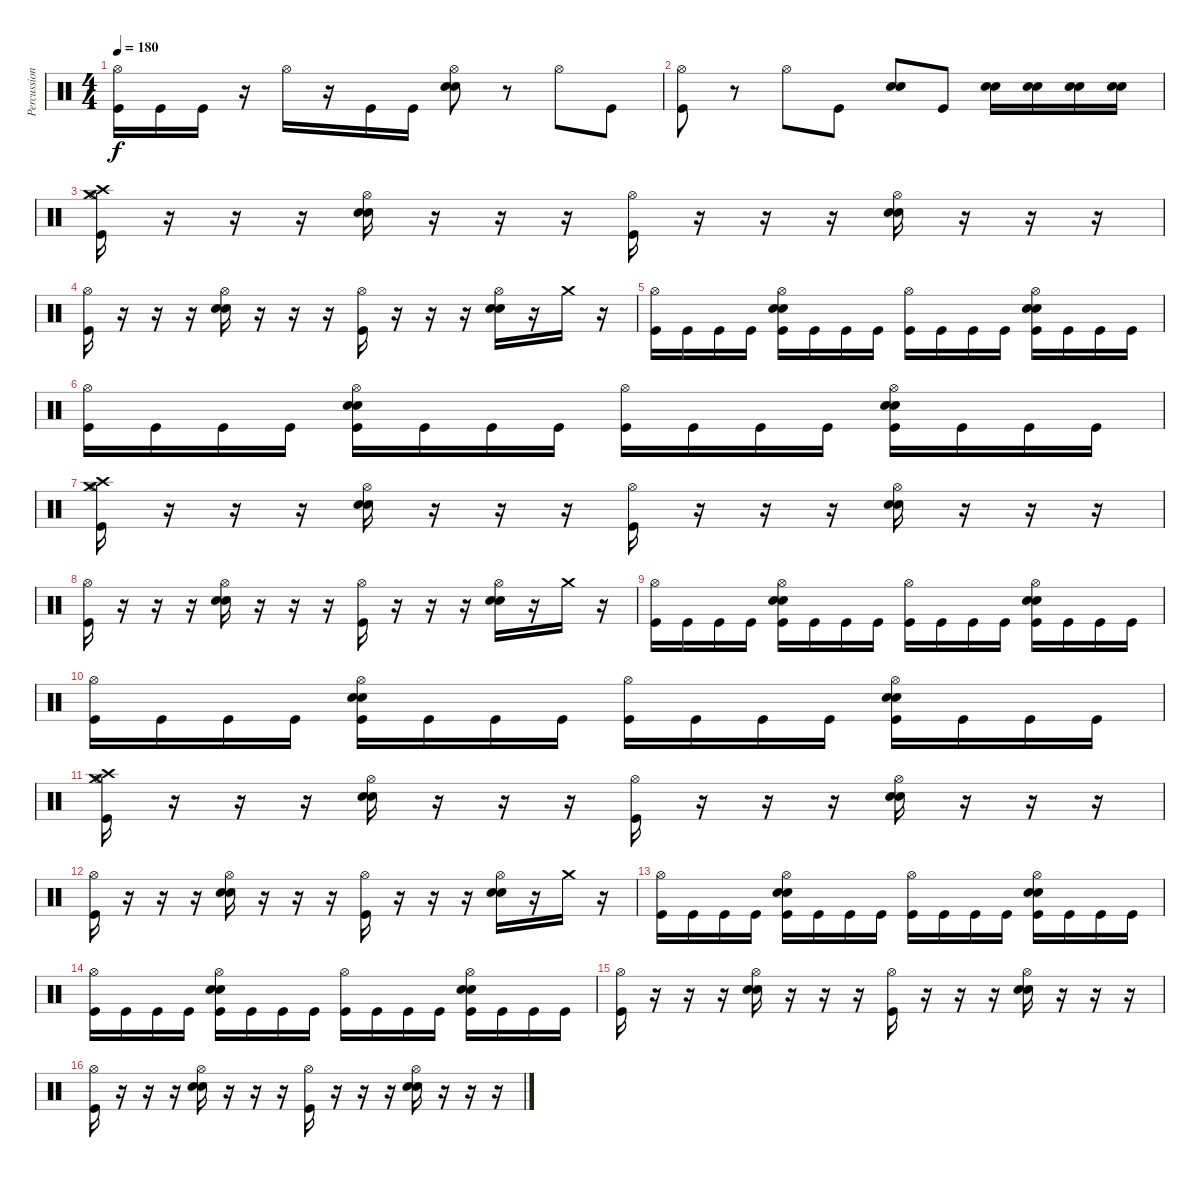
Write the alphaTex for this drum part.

\track ("Percussion" "Percussion") {instrument percussion}
\staff {score}
\articulation defaults
\ts (4 4)
\tempo 180
\clef neutral
\ks c
("Hi-Hat (open)" "Kick (hit)").16{dy f} "Kick (hit)".16 "Kick (hit)".16 r.16 "Hi-Hat (open)".16 r.16 "Kick (hit)".16 "Kick (hit)".16 ("Hi-Hat (open)" "Snare (hit) 2" "Electric Snare (hit)").8 r.8 "Hi-Hat (open)".8 "Kick (hit)".8 |
("Hi-Hat (open)" "Kick (hit)").8 r.8 "Hi-Hat (open)".8 "Kick (hit)".8 ("Snare (hit) 2" "Electric Snare (hit)").8 "Kick (hit)".8 ("Snare (hit) 2" "Electric Snare (hit)").16 ("Snare (hit) 2" "Electric Snare (hit)").16 ("Snare (hit) 2" "Electric Snare (hit)").16 ("Snare (hit) 2" "Electric Snare (hit)").16 |
("Crash high (hit)" "Hi-Hat (open)" "Crash medium (hit)" "Kick (hit)").16 r.16 r.16 r.16 ("Hi-Hat (open)" "Snare (hit) 2" "Electric Snare (hit)").16 r.16 r.16 r.16 ("Hi-Hat (open)" "Kick (hit)").16 r.16 r.16 r.16 ("Hi-Hat (open)" "Snare (hit) 2" "Electric Snare (hit)").16 r.16 r.16 r.16 |
("Hi-Hat (open)" "Kick (hit)").16 r.16 r.16 r.16 ("Hi-Hat (open)" "Snare (hit) 2" "Electric Snare (hit)").16 r.16 r.16 r.16 ("Hi-Hat (open)" "Kick (hit)").16 r.16 r.16 r.16 ("Hi-Hat (open)" "Snare (hit) 2" "Electric Snare (hit)").16 r.16 "Crash medium (hit)".16 r.16 |
("Hi-Hat (open)" "Kick (hit)").16 "Kick (hit)".16 "Kick (hit)".16 "Kick (hit)".16 ("Hi-Hat (open)" "Snare (hit) 2" "Electric Snare (hit)" "Kick (hit)").16 "Kick (hit)".16 "Kick (hit)".16 "Kick (hit)".16 ("Hi-Hat (open)" "Kick (hit)").16 "Kick (hit)".16 "Kick (hit)".16 "Kick (hit)".16 ("Hi-Hat (open)" "Snare (hit) 2" "Electric Snare (hit)" "Kick (hit)").16 "Kick (hit)".16 "Kick (hit)".16 "Kick (hit)".16 |
("Hi-Hat (open)" "Kick (hit)").16 "Kick (hit)".16 "Kick (hit)".16 "Kick (hit)".16 ("Hi-Hat (open)" "Snare (hit) 2" "Electric Snare (hit)" "Kick (hit)").16 "Kick (hit)".16 "Kick (hit)".16 "Kick (hit)".16 ("Hi-Hat (open)" "Kick (hit)").16 "Kick (hit)".16 "Kick (hit)".16 "Kick (hit)".16 ("Hi-Hat (open)" "Snare (hit) 2" "Electric Snare (hit)" "Kick (hit)").16 "Kick (hit)".16 "Kick (hit)".16 "Kick (hit)".16 |
("Crash medium (hit)" "Hi-Hat (open)" "Crash high (hit)" "Kick (hit)").16 r.16 r.16 r.16 ("Hi-Hat (open)" "Snare (hit) 2" "Electric Snare (hit)").16 r.16 r.16 r.16 ("Hi-Hat (open)" "Kick (hit)").16 r.16 r.16 r.16 ("Hi-Hat (open)" "Snare (hit) 2" "Electric Snare (hit)").16 r.16 r.16 r.16 |
("Hi-Hat (open)" "Kick (hit)").16 r.16 r.16 r.16 ("Hi-Hat (open)" "Snare (hit) 2" "Electric Snare (hit)").16 r.16 r.16 r.16 ("Hi-Hat (open)" "Kick (hit)").16 r.16 r.16 r.16 ("Hi-Hat (open)" "Snare (hit) 2" "Electric Snare (hit)").16 r.16 "Crash medium (hit)".16 r.16 |
("Hi-Hat (open)" "Kick (hit)").16 "Kick (hit)".16 "Kick (hit)".16 "Kick (hit)".16 ("Hi-Hat (open)" "Snare (hit) 2" "Electric Snare (hit)" "Kick (hit)").16 "Kick (hit)".16 "Kick (hit)".16 "Kick (hit)".16 ("Hi-Hat (open)" "Kick (hit)").16 "Kick (hit)".16 "Kick (hit)".16 "Kick (hit)".16 ("Hi-Hat (open)" "Snare (hit) 2" "Electric Snare (hit)" "Kick (hit)").16 "Kick (hit)".16 "Kick (hit)".16 "Kick (hit)".16 |
("Hi-Hat (open)" "Kick (hit)").16 "Kick (hit)".16 "Kick (hit)".16 "Kick (hit)".16 ("Hi-Hat (open)" "Snare (hit) 2" "Electric Snare (hit)" "Kick (hit)").16 "Kick (hit)".16 "Kick (hit)".16 "Kick (hit)".16 ("Hi-Hat (open)" "Kick (hit)").16 "Kick (hit)".16 "Kick (hit)".16 "Kick (hit)".16 ("Hi-Hat (open)" "Snare (hit) 2" "Electric Snare (hit)" "Kick (hit)").16 "Kick (hit)".16 "Kick (hit)".16 "Kick (hit)".16 |
("Crash medium (hit)" "Hi-Hat (open)" "Crash high (hit)" "Kick (hit)").16 r.16 r.16 r.16 ("Hi-Hat (open)" "Snare (hit) 2" "Electric Snare (hit)").16 r.16 r.16 r.16 ("Hi-Hat (open)" "Kick (hit)").16 r.16 r.16 r.16 ("Hi-Hat (open)" "Snare (hit) 2" "Electric Snare (hit)").16 r.16 r.16 r.16 |
("Hi-Hat (open)" "Kick (hit)").16 r.16 r.16 r.16 ("Hi-Hat (open)" "Snare (hit) 2" "Electric Snare (hit)").16 r.16 r.16 r.16 ("Hi-Hat (open)" "Kick (hit)").16 r.16 r.16 r.16 ("Hi-Hat (open)" "Snare (hit) 2" "Electric Snare (hit)").16 r.16 "Crash medium (hit)".16 r.16 |
("Hi-Hat (open)" "Kick (hit)").16 "Kick (hit)".16 "Kick (hit)".16 "Kick (hit)".16 ("Hi-Hat (open)" "Snare (hit) 2" "Electric Snare (hit)" "Kick (hit)").16 "Kick (hit)".16 "Kick (hit)".16 "Kick (hit)".16 ("Hi-Hat (open)" "Kick (hit)").16 "Kick (hit)".16 "Kick (hit)".16 "Kick (hit)".16 ("Hi-Hat (open)" "Snare (hit) 2" "Electric Snare (hit)" "Kick (hit)").16 "Kick (hit)".16 "Kick (hit)".16 "Kick (hit)".16 |
("Hi-Hat (open)" "Kick (hit)").16 "Kick (hit)".16 "Kick (hit)".16 "Kick (hit)".16 ("Hi-Hat (open)" "Snare (hit) 2" "Electric Snare (hit)" "Kick (hit)").16 "Kick (hit)".16 "Kick (hit)".16 "Kick (hit)".16 ("Hi-Hat (open)" "Kick (hit)").16 "Kick (hit)".16 "Kick (hit)".16 "Kick (hit)".16 ("Hi-Hat (open)" "Snare (hit) 2" "Electric Snare (hit)" "Kick (hit)").16 "Kick (hit)".16 "Kick (hit)".16 "Kick (hit)".16 |
("Hi-Hat (open)" "Kick (hit)").16 r.16 r.16 r.16 ("Hi-Hat (open)" "Snare (hit) 2" "Electric Snare (hit)").16 r.16 r.16 r.16 ("Hi-Hat (open)" "Kick (hit)").16 r.16 r.16 r.16 ("Hi-Hat (open)" "Snare (hit) 2" "Electric Snare (hit)").16 r.16 r.16 r.16 |
("Hi-Hat (open)" "Kick (hit)").16 r.16 r.16 r.16 ("Hi-Hat (open)" "Snare (hit) 2" "Electric Snare (hit)").16 r.16 r.16 r.16 ("Hi-Hat (open)" "Kick (hit)").16 r.16 r.16 r.16 ("Hi-Hat (open)" "Snare (hit) 2" "Electric Snare (hit)").16 r.16 r.16 r.16
